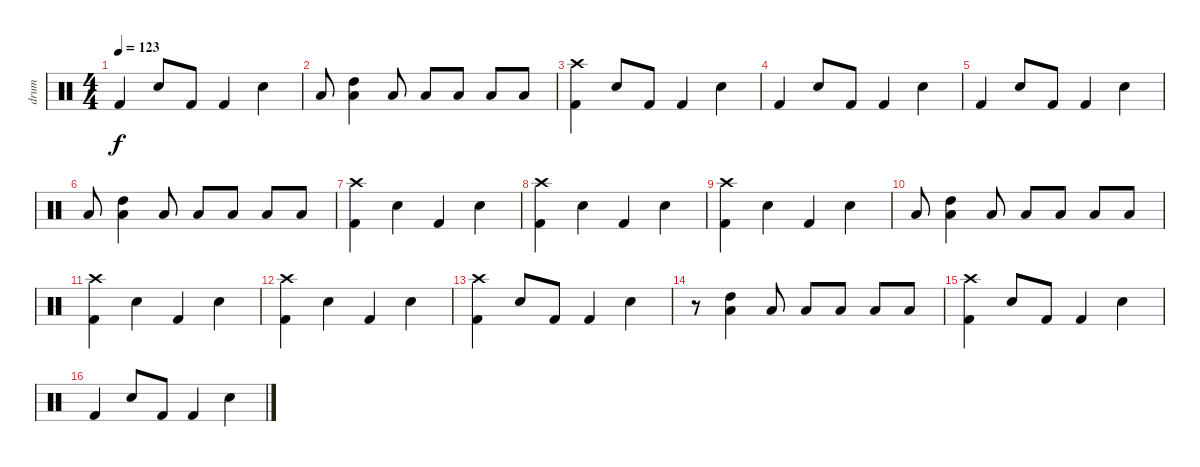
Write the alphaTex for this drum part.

\track ("drum" "drum") {instrument percussion}
\staff {score}
\articulation defaults
\ts (4 4)
\tempo 123
\clef neutral
\ks c "Kick (hit) 2".4{dy f} "Snare (hit) 2".8 "Kick (hit) 2".8 "Kick (hit) 2".4 "Snare (hit) 2".4
|
"Low Tom (hit)".8 ("Low Tom (hit)" "High Tom (hit)").4 "Low Tom (hit)".8 "Low Tom (hit)".8 "Low Tom (hit)".8 "Low Tom (hit)".8 "Low Tom (hit)".8 |
("Kick (hit) 2" "Crash high (hit)").4 "Snare (hit) 2".8 "Kick (hit) 2".8 "Kick (hit) 2".4 "Snare (hit) 2".4 |
"Kick (hit) 2".4 "Snare (hit) 2".8 "Kick (hit) 2".8 "Kick (hit) 2".4 "Snare (hit) 2".4 |
"Kick (hit) 2".4 "Snare (hit) 2".8 "Kick (hit) 2".8 "Kick (hit) 2".4 "Snare (hit) 2".4 |
"Low Tom (hit)".8 ("Low Tom (hit)" "High Tom (hit)").4 "Low Tom (hit)".8 "Low Tom (hit)".8 "Low Tom (hit)".8 "Low Tom (hit)".8 "Low Tom (hit)".8 |
("Kick (hit) 2" "Crash high (hit)").4 "Snare (hit) 2".4 "Kick (hit) 2".4 "Snare (hit) 2".4 |
("Kick (hit) 2" "Crash high (hit)").4 "Snare (hit) 2".4 "Kick (hit) 2".4 "Snare (hit) 2".4 |
("Kick (hit) 2" "Crash high (hit)").4 "Snare (hit) 2".4 "Kick (hit) 2".4 "Snare (hit) 2".4 |
"Low Tom (hit)".8 ("Low Tom (hit)" "High Tom (hit)").4 "Low Tom (hit)".8 "Low Tom (hit)".8 "Low Tom (hit)".8 "Low Tom (hit)".8 "Low Tom (hit)".8 |
("Kick (hit) 2" "Crash high (hit)").4 "Snare (hit) 2".4 "Kick (hit) 2".4 "Snare (hit) 2".4 |
("Kick (hit) 2" "Crash high (hit)").4 "Snare (hit) 2".4 "Kick (hit) 2".4 "Snare (hit) 2".4 |
("Kick (hit) 2" "Crash high (hit)").4 "Snare (hit) 2".8 "Kick (hit) 2".8 "Kick (hit) 2".4 "Snare (hit) 2".4 |
r.8 ("Low Tom (hit)" "High Tom (hit)").4 "Low Tom (hit)".8 "Low Tom (hit)".8 "Low Tom (hit)".8 "Low Tom (hit)".8 "Low Tom (hit)".8 |
("Kick (hit) 2" "Crash high (hit)").4 "Snare (hit) 2".8 "Kick (hit) 2".8 "Kick (hit) 2".4 "Snare (hit) 2".4 |
"Kick (hit) 2".4 "Snare (hit) 2".8 "Kick (hit) 2".8 "Kick (hit) 2".4 "Snare (hit) 2".4
